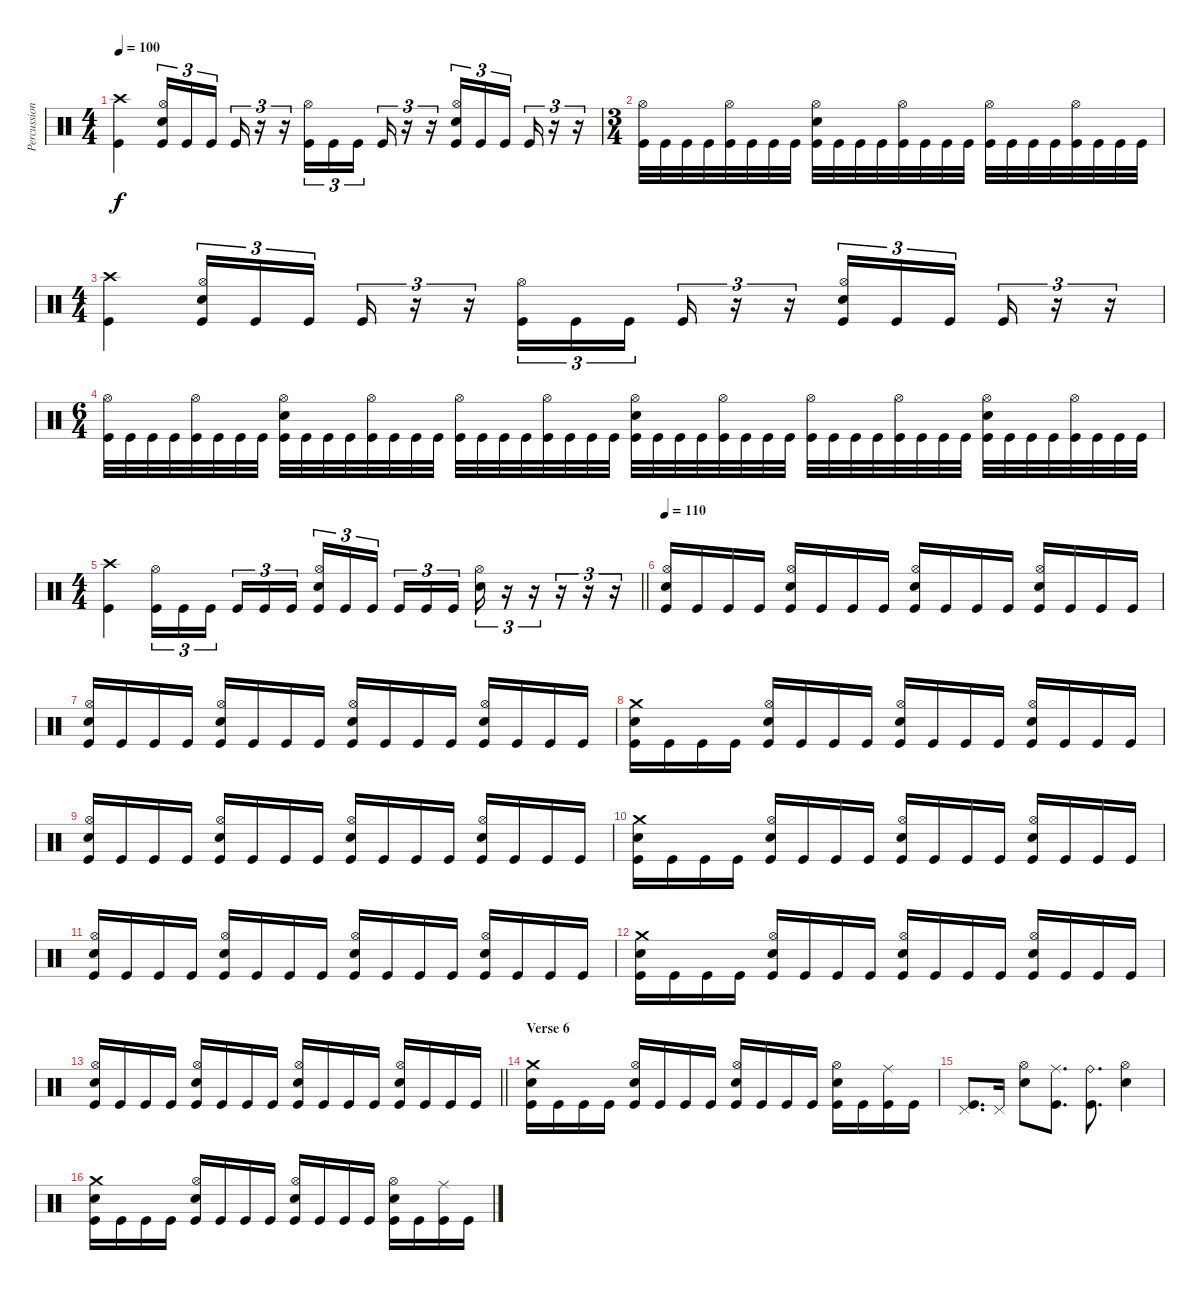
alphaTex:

\track ("Percussions" "Percussion") {instrument percussion}
\staff {score}
\articulation defaults
\ts (4 4)
\tempo 100
\clef neutral
\ks c
("Crash high (hit)" "Kick (hit)").4{dy f} ("Hi-Hat (open)" "Electric Snare (hit)" "Kick (hit)").16{tu (3 2)} "Kick (hit)".16{tu (3 2)} "Kick (hit)".16{tu (3 2) beam splitsecondary} "Kick (hit)".16{tu (3 2)} r.16{tu (3 2)} r.16{tu (3 2)} ("Hi-Hat (open)" "Kick (hit)").16{tu (3 2)} "Kick (hit)".16{tu (3 2)} "Kick (hit)".16{tu (3 2) beam splitsecondary} "Kick (hit)".16{tu (3 2)} r.16{tu (3 2)} r.16{tu (3 2)} ("Hi-Hat (open)" "Electric Snare (hit)" "Kick (hit)").16{tu (3 2)} "Kick (hit)".16{tu (3 2)} "Kick (hit)".16{tu (3 2) beam splitsecondary} "Kick (hit)".16{tu (3 2)} r.16{tu (3 2)} r.16{tu (3 2)} |
\ts (3 4)
("Hi-Hat (open)" "Kick (hit)").32 "Kick (hit)".32 "Kick (hit)".32 "Kick (hit)".32 ("Hi-Hat (open)" "Kick (hit)").32 "Kick (hit)".32 "Kick (hit)".32 "Kick (hit)".32 ("Hi-Hat (open)" "Electric Snare (hit)" "Kick (hit)").32 "Kick (hit)".32 "Kick (hit)".32 "Kick (hit)".32 ("Hi-Hat (open)" "Kick (hit)").32 "Kick (hit)".32 "Kick (hit)".32 "Kick (hit)".32 ("Hi-Hat (open)" "Kick (hit)").32 "Kick (hit)".32 "Kick (hit)".32 "Kick (hit)".32 ("Hi-Hat (open)" "Kick (hit)").32 "Kick (hit)".32 "Kick (hit)".32 "Kick (hit)".32 |
\ts (4 4)
("Crash high (hit)" "Kick (hit)").4 ("Hi-Hat (open)" "Electric Snare (hit)" "Kick (hit)").16{tu (3 2)} "Kick (hit)".16{tu (3 2)} "Kick (hit)".16{tu (3 2) beam splitsecondary} "Kick (hit)".16{tu (3 2)} r.16{tu (3 2)} r.16{tu (3 2)} ("Hi-Hat (open)" "Kick (hit)").16{tu (3 2)} "Kick (hit)".16{tu (3 2)} "Kick (hit)".16{tu (3 2) beam splitsecondary} "Kick (hit)".16{tu (3 2)} r.16{tu (3 2)} r.16{tu (3 2)} ("Hi-Hat (open)" "Electric Snare (hit)" "Kick (hit)").16{tu (3 2)} "Kick (hit)".16{tu (3 2)} "Kick (hit)".16{tu (3 2) beam splitsecondary} "Kick (hit)".16{tu (3 2)} r.16{tu (3 2)} r.16{tu (3 2)} |
\ts (6 4)
("Hi-Hat (open)" "Kick (hit)").32 "Kick (hit)".32 "Kick (hit)".32 "Kick (hit)".32 ("Hi-Hat (open)" "Kick (hit)").32 "Kick (hit)".32 "Kick (hit)".32 "Kick (hit)".32 ("Hi-Hat (open)" "Electric Snare (hit)" "Kick (hit)").32 "Kick (hit)".32 "Kick (hit)".32 "Kick (hit)".32 ("Hi-Hat (open)" "Kick (hit)").32 "Kick (hit)".32 "Kick (hit)".32 "Kick (hit)".32 ("Hi-Hat (open)" "Kick (hit)").32 "Kick (hit)".32 "Kick (hit)".32 "Kick (hit)".32 ("Hi-Hat (open)" "Kick (hit)").32 "Kick (hit)".32 "Kick (hit)".32 "Kick (hit)".32 ("Hi-Hat (open)" "Electric Snare (hit)" "Kick (hit)").32 "Kick (hit)".32 "Kick (hit)".32 "Kick (hit)".32 ("Hi-Hat (open)" "Kick (hit)").32 "Kick (hit)".32 "Kick (hit)".32 "Kick (hit)".32 ("Hi-Hat (open)" "Kick (hit)").32 "Kick (hit)".32 "Kick (hit)".32 "Kick (hit)".32 ("Hi-Hat (open)" "Kick (hit)").32 "Kick (hit)".32 "Kick (hit)".32 "Kick (hit)".32 ("Hi-Hat (open)" "Electric Snare (hit)" "Kick (hit)").32 "Kick (hit)".32 "Kick (hit)".32 "Kick (hit)".32 ("Hi-Hat (open)" "Kick (hit)").32 "Kick (hit)".32 "Kick (hit)".32 "Kick (hit)".32 |
\ts (4 4)
\barLineRight lightlight
("Crash high (hit)" "Kick (hit)").4 ("Hi-Hat (open)" "Kick (hit)").16{tu (3 2)} "Kick (hit)".16{tu (3 2)} "Kick (hit)".16{tu (3 2) beam splitsecondary} "Kick (hit)".16{tu (3 2)} "Kick (hit)".16{tu (3 2)} "Kick (hit)".16{tu (3 2)} ("Hi-Hat (open)" "Electric Snare (hit)" "Kick (hit)").16{tu (3 2)} "Kick (hit)".16{tu (3 2)} "Kick (hit)".16{tu (3 2) beam splitsecondary} "Kick (hit)".16{tu (3 2)} "Kick (hit)".16{tu (3 2)} "Kick (hit)".16{tu (3 2)} ("Hi-Hat (open)" "Electric Snare (hit)").16{tu (3 2)} r.16{tu (3 2)} r.16{tu (3 2)} r.16{tu (3 2)} r.16{tu (3 2)} r.16{tu (3 2)} |
\section ("" "")
\tempo 110
("Hi-Hat (open)" "Electric Snare (hit)" "Kick (hit)").16 "Kick (hit)".16 "Kick (hit)".16 "Kick (hit)".16 ("Hi-Hat (open)" "Electric Snare (hit)" "Kick (hit)").16 "Kick (hit)".16 "Kick (hit)".16 "Kick (hit)".16 ("Hi-Hat (open)" "Electric Snare (hit)" "Kick (hit)").16 "Kick (hit)".16 "Kick (hit)".16 "Kick (hit)".16 ("Hi-Hat (open)" "Electric Snare (hit)" "Kick (hit)").16 "Kick (hit)".16 "Kick (hit)".16 "Kick (hit)".16 |
("Hi-Hat (open)" "Electric Snare (hit)" "Kick (hit)").16 "Kick (hit)".16 "Kick (hit)".16 "Kick (hit)".16 ("Hi-Hat (open)" "Electric Snare (hit)" "Kick (hit)").16 "Kick (hit)".16 "Kick (hit)".16 "Kick (hit)".16 ("Hi-Hat (open)" "Electric Snare (hit)" "Kick (hit)").16 "Kick (hit)".16 "Kick (hit)".16 "Kick (hit)".16 ("Hi-Hat (open)" "Electric Snare (hit)" "Kick (hit)").16 "Kick (hit)".16 "Kick (hit)".16 "Kick (hit)".16 |
("Crash medium (hit)" "Electric Snare (hit)" "Kick (hit)").16 "Kick (hit)".16 "Kick (hit)".16 "Kick (hit)".16 ("Hi-Hat (open)" "Electric Snare (hit)" "Kick (hit)").16 "Kick (hit)".16 "Kick (hit)".16 "Kick (hit)".16 ("Hi-Hat (open)" "Electric Snare (hit)" "Kick (hit)").16 "Kick (hit)".16 "Kick (hit)".16 "Kick (hit)".16 ("Hi-Hat (open)" "Electric Snare (hit)" "Kick (hit)").16 "Kick (hit)".16 "Kick (hit)".16 "Kick (hit)".16 |
("Hi-Hat (open)" "Electric Snare (hit)" "Kick (hit)").16 "Kick (hit)".16 "Kick (hit)".16 "Kick (hit)".16 ("Hi-Hat (open)" "Electric Snare (hit)" "Kick (hit)").16 "Kick (hit)".16 "Kick (hit)".16 "Kick (hit)".16 ("Hi-Hat (open)" "Electric Snare (hit)" "Kick (hit)").16 "Kick (hit)".16 "Kick (hit)".16 "Kick (hit)".16 ("Hi-Hat (open)" "Electric Snare (hit)" "Kick (hit)").16 "Kick (hit)".16 "Kick (hit)".16 "Kick (hit)".16 |
("Crash medium (hit)" "Electric Snare (hit)" "Kick (hit)").16 "Kick (hit)".16 "Kick (hit)".16 "Kick (hit)".16 ("Hi-Hat (open)" "Electric Snare (hit)" "Kick (hit)").16 "Kick (hit)".16 "Kick (hit)".16 "Kick (hit)".16 ("Hi-Hat (open)" "Electric Snare (hit)" "Kick (hit)").16 "Kick (hit)".16 "Kick (hit)".16 "Kick (hit)".16 ("Hi-Hat (open)" "Electric Snare (hit)" "Kick (hit)").16 "Kick (hit)".16 "Kick (hit)".16 "Kick (hit)".16 |
("Hi-Hat (open)" "Electric Snare (hit)" "Kick (hit)").16 "Kick (hit)".16 "Kick (hit)".16 "Kick (hit)".16 ("Hi-Hat (open)" "Electric Snare (hit)" "Kick (hit)").16 "Kick (hit)".16 "Kick (hit)".16 "Kick (hit)".16 ("Hi-Hat (open)" "Electric Snare (hit)" "Kick (hit)").16 "Kick (hit)".16 "Kick (hit)".16 "Kick (hit)".16 ("Hi-Hat (open)" "Electric Snare (hit)" "Kick (hit)").16 "Kick (hit)".16 "Kick (hit)".16 "Kick (hit)".16 |
("Crash medium (hit)" "Electric Snare (hit)" "Kick (hit)").16 "Kick (hit)".16 "Kick (hit)".16 "Kick (hit)".16 ("Hi-Hat (open)" "Electric Snare (hit)" "Kick (hit)").16 "Kick (hit)".16 "Kick (hit)".16 "Kick (hit)".16 ("Hi-Hat (open)" "Electric Snare (hit)" "Kick (hit)").16 "Kick (hit)".16 "Kick (hit)".16 "Kick (hit)".16 ("Hi-Hat (open)" "Electric Snare (hit)" "Kick (hit)").16 "Kick (hit)".16 "Kick (hit)".16 "Kick (hit)".16 |
\barLineRight lightlight
("Hi-Hat (open)" "Electric Snare (hit)" "Kick (hit)").16 "Kick (hit)".16 "Kick (hit)".16 "Kick (hit)".16 ("Hi-Hat (open)" "Electric Snare (hit)" "Kick (hit)").16 "Kick (hit)".16 "Kick (hit)".16 "Kick (hit)".16 ("Hi-Hat (open)" "Electric Snare (hit)" "Kick (hit)").16 "Kick (hit)".16 "Kick (hit)".16 "Kick (hit)".16 ("Hi-Hat (open)" "Electric Snare (hit)" "Kick (hit)").16 "Kick (hit)".16 "Kick (hit)".16 "Kick (hit)".16 |
\section ("" "Verse 6")
("Crash medium (hit)" "Electric Snare (hit)" "Kick (hit)").16 "Kick (hit)".16 "Kick (hit)".16 "Kick (hit)".16 ("Hi-Hat (open)" "Electric Snare (hit)" "Kick (hit)").16 "Kick (hit)".16 "Kick (hit)".16 "Kick (hit)".16 ("Hi-Hat (open)" "Electric Snare (hit)" "Kick (hit)").16 "Kick (hit)".16 "Kick (hit)".16 "Kick (hit)".16 ("Hi-Hat (open)" "Electric Snare (hit)" "Kick (hit)").16 "Kick (hit)".16 ("Ride (middle)" "Kick (hit)").16 "Kick (hit)".16 |
("Pedal Hi-Hat (hit)" "Kick (hit)").8{d} "Pedal Hi-Hat (hit)".16 ("Hi-Hat (open)" "Electric Snare (hit)").8 ("Ride (middle)" "Kick (hit)").8{d} ("Ride (bell)" "Kick (hit)").8{d} ("Hi-Hat (open)" "Electric Snare (hit)").4 |
("Crash medium (hit)" "Electric Snare (hit)" "Kick (hit)").16 "Kick (hit)".16 "Kick (hit)".16 "Kick (hit)".16 ("Hi-Hat (open)" "Electric Snare (hit)" "Kick (hit)").16 "Kick (hit)".16 "Kick (hit)".16 "Kick (hit)".16 ("Hi-Hat (open)" "Electric Snare (hit)" "Kick (hit)").16 "Kick (hit)".16 "Kick (hit)".16 "Kick (hit)".16 ("Hi-Hat (open)" "Electric Snare (hit)" "Kick (hit)").16 "Kick (hit)".16 ("Ride (middle)" "Kick (hit)").16 "Kick (hit)".16
